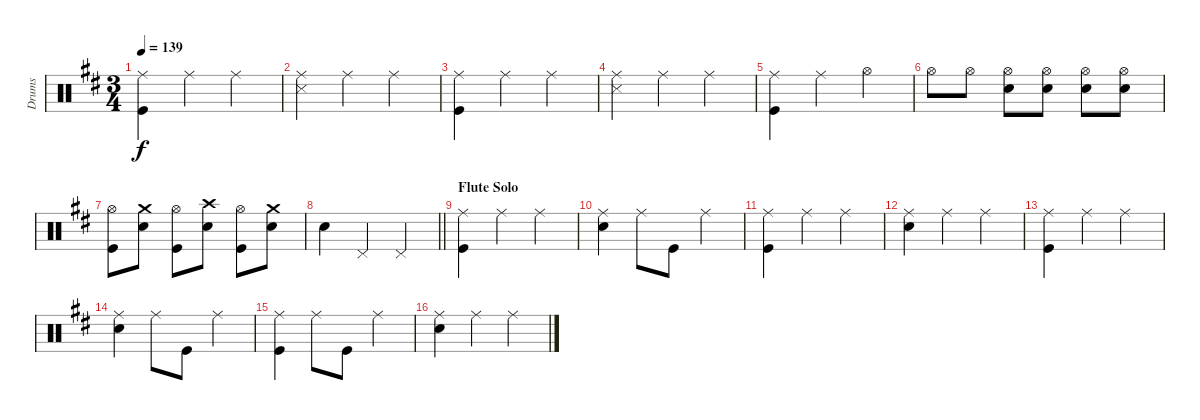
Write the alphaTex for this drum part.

\track ("Drums" "Drums") {instrument percussion}
\staff {score}
\articulation defaults
\ts (3 4)
\tempo 139
\clef neutral
\ks d
("Ride (middle)" "Kick (hit)").4{dy f} "Ride (middle)".4 "Ride (middle)".4 |
("Ride (middle)" "Snare (side stick) 3").4 "Ride (middle)".4 "Ride (middle)".4 |
("Ride (middle)" "Kick (hit)").4 "Ride (middle)".4 "Ride (middle)".4 |
("Ride (middle)" "Snare (side stick) 3").4 "Ride (middle)".4 "Ride (middle)".4 |
("Ride (middle)" "Kick (hit)").4 "Ride (middle)".4 "Hi-Hat (open)".4 |
"Hi-Hat (open)".8 "Hi-Hat (open)".8 ("Hi-Hat (open)" "Snare (hit) 2").8 ("Hi-Hat (open)" "Snare (hit) 2").8 ("Hi-Hat (open)" "Snare (hit) 2").8 ("Hi-Hat (open)" "Snare (hit) 2").8 |
("Hi-Hat (open)" "Kick (hit)").8 ("Crash medium (hit)" "Snare (hit) 2").8 ("Hi-Hat (open)" "Kick (hit)").8 ("Crash high (hit)" "Snare (hit) 2").8 ("Hi-Hat (open)" "Kick (hit)").8 ("Crash medium (hit)" "Snare (hit) 2").8 |
\barLineRight lightlight "Snare (hit) 2".4 "Pedal Hi-Hat (hit)".4 "Pedal Hi-Hat (hit)".4
|
\section ("" "Flute Solo")
("Ride (middle)" "Kick (hit)").4 "Ride (middle)".4 "Ride (middle)".4 |
("Ride (middle)" "Snare (hit) 2").4 "Ride (middle)".8 "Kick (hit)".8 "Ride (middle)".4 |
("Ride (middle)" "Kick (hit)").4 "Ride (middle)".4 "Ride (middle)".4 |
("Ride (middle)" "Snare (hit) 2").4 "Ride (middle)".4 "Ride (middle)".4 |
("Ride (middle)" "Kick (hit)").4 "Ride (middle)".4 "Ride (middle)".4 |
("Ride (middle)" "Snare (hit) 2").4 "Ride (middle)".8 "Kick (hit)".8 "Ride (middle)".4 |
("Ride (middle)" "Kick (hit)").4 "Ride (middle)".8 "Kick (hit)".8 "Ride (middle)".4 |
("Ride (middle)" "Snare (hit) 2").4 "Ride (middle)".4 "Ride (middle)".4
